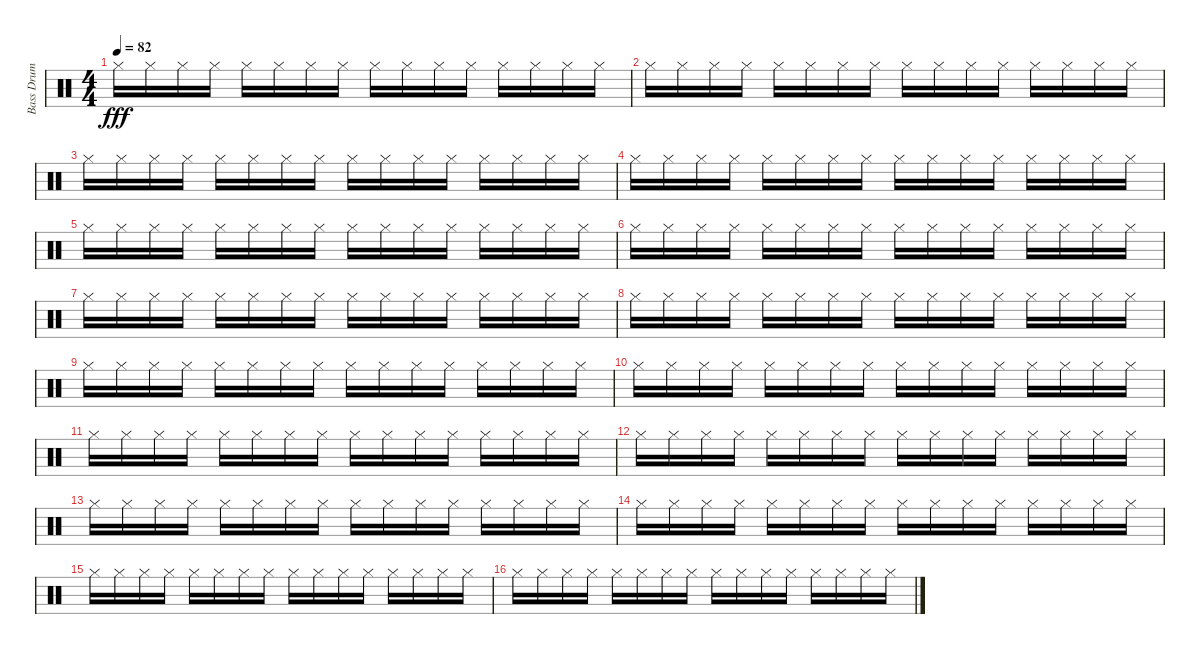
\track ("Bass Drum" "Bass Drum") {instrument percussion}
\staff {score}
\articulation defaults
\ts (4 4)
\tempo 82
\clef neutral
\ks c "Hi-Hat (closed)".16{dy fff} "Hi-Hat (closed)".16 "Hi-Hat (closed)".16 "Hi-Hat (closed)".16 "Hi-Hat (closed)".16 "Hi-Hat (closed)".16 "Hi-Hat (closed)".16 "Hi-Hat (closed)".16 "Hi-Hat (closed)".16 "Hi-Hat (closed)".16 "Hi-Hat (closed)".16 "Hi-Hat (closed)".16 "Hi-Hat (closed)".16 "Hi-Hat (closed)".16 "Hi-Hat (closed)".16 "Hi-Hat (closed)".16
|
"Hi-Hat (closed)".16 "Hi-Hat (closed)".16 "Hi-Hat (closed)".16 "Hi-Hat (closed)".16 "Hi-Hat (closed)".16 "Hi-Hat (closed)".16 "Hi-Hat (closed)".16 "Hi-Hat (closed)".16 "Hi-Hat (closed)".16 "Hi-Hat (closed)".16 "Hi-Hat (closed)".16 "Hi-Hat (closed)".16 "Hi-Hat (closed)".16 "Hi-Hat (closed)".16 "Hi-Hat (closed)".16 "Hi-Hat (closed)".16 |
"Hi-Hat (closed)".16 "Hi-Hat (closed)".16 "Hi-Hat (closed)".16 "Hi-Hat (closed)".16 "Hi-Hat (closed)".16 "Hi-Hat (closed)".16 "Hi-Hat (closed)".16 "Hi-Hat (closed)".16 "Hi-Hat (closed)".16 "Hi-Hat (closed)".16 "Hi-Hat (closed)".16 "Hi-Hat (closed)".16 "Hi-Hat (closed)".16 "Hi-Hat (closed)".16 "Hi-Hat (closed)".16 "Hi-Hat (closed)".16 |
"Hi-Hat (closed)".16 "Hi-Hat (closed)".16 "Hi-Hat (closed)".16 "Hi-Hat (closed)".16 "Hi-Hat (closed)".16 "Hi-Hat (closed)".16 "Hi-Hat (closed)".16 "Hi-Hat (closed)".16 "Hi-Hat (closed)".16 "Hi-Hat (closed)".16 "Hi-Hat (closed)".16 "Hi-Hat (closed)".16 "Hi-Hat (closed)".16 "Hi-Hat (closed)".16 "Hi-Hat (closed)".16 "Hi-Hat (closed)".16 |
"Hi-Hat (closed)".16 "Hi-Hat (closed)".16 "Hi-Hat (closed)".16 "Hi-Hat (closed)".16 "Hi-Hat (closed)".16 "Hi-Hat (closed)".16 "Hi-Hat (closed)".16 "Hi-Hat (closed)".16 "Hi-Hat (closed)".16 "Hi-Hat (closed)".16 "Hi-Hat (closed)".16 "Hi-Hat (closed)".16 "Hi-Hat (closed)".16 "Hi-Hat (closed)".16 "Hi-Hat (closed)".16 "Hi-Hat (closed)".16 |
"Hi-Hat (closed)".16 "Hi-Hat (closed)".16 "Hi-Hat (closed)".16 "Hi-Hat (closed)".16 "Hi-Hat (closed)".16 "Hi-Hat (closed)".16 "Hi-Hat (closed)".16 "Hi-Hat (closed)".16 "Hi-Hat (closed)".16 "Hi-Hat (closed)".16 "Hi-Hat (closed)".16 "Hi-Hat (closed)".16 "Hi-Hat (closed)".16 "Hi-Hat (closed)".16 "Hi-Hat (closed)".16 "Hi-Hat (closed)".16 |
"Hi-Hat (closed)".16 "Hi-Hat (closed)".16 "Hi-Hat (closed)".16 "Hi-Hat (closed)".16 "Hi-Hat (closed)".16 "Hi-Hat (closed)".16 "Hi-Hat (closed)".16 "Hi-Hat (closed)".16 "Hi-Hat (closed)".16 "Hi-Hat (closed)".16 "Hi-Hat (closed)".16 "Hi-Hat (closed)".16 "Hi-Hat (closed)".16 "Hi-Hat (closed)".16 "Hi-Hat (closed)".16 "Hi-Hat (closed)".16 |
"Hi-Hat (closed)".16 "Hi-Hat (closed)".16 "Hi-Hat (closed)".16 "Hi-Hat (closed)".16 "Hi-Hat (closed)".16 "Hi-Hat (closed)".16 "Hi-Hat (closed)".16 "Hi-Hat (closed)".16 "Hi-Hat (closed)".16 "Hi-Hat (closed)".16 "Hi-Hat (closed)".16 "Hi-Hat (closed)".16 "Hi-Hat (closed)".16 "Hi-Hat (closed)".16 "Hi-Hat (closed)".16 "Hi-Hat (closed)".16 |
"Hi-Hat (closed)".16 "Hi-Hat (closed)".16 "Hi-Hat (closed)".16 "Hi-Hat (closed)".16 "Hi-Hat (closed)".16 "Hi-Hat (closed)".16 "Hi-Hat (closed)".16 "Hi-Hat (closed)".16 "Hi-Hat (closed)".16 "Hi-Hat (closed)".16 "Hi-Hat (closed)".16 "Hi-Hat (closed)".16 "Hi-Hat (closed)".16 "Hi-Hat (closed)".16 "Hi-Hat (closed)".16 "Hi-Hat (closed)".16 |
"Hi-Hat (closed)".16 "Hi-Hat (closed)".16 "Hi-Hat (closed)".16 "Hi-Hat (closed)".16 "Hi-Hat (closed)".16 "Hi-Hat (closed)".16 "Hi-Hat (closed)".16 "Hi-Hat (closed)".16 "Hi-Hat (closed)".16 "Hi-Hat (closed)".16 "Hi-Hat (closed)".16 "Hi-Hat (closed)".16 "Hi-Hat (closed)".16 "Hi-Hat (closed)".16 "Hi-Hat (closed)".16 "Hi-Hat (closed)".16 |
"Hi-Hat (closed)".16 "Hi-Hat (closed)".16 "Hi-Hat (closed)".16 "Hi-Hat (closed)".16 "Hi-Hat (closed)".16 "Hi-Hat (closed)".16 "Hi-Hat (closed)".16 "Hi-Hat (closed)".16 "Hi-Hat (closed)".16 "Hi-Hat (closed)".16 "Hi-Hat (closed)".16 "Hi-Hat (closed)".16 "Hi-Hat (closed)".16 "Hi-Hat (closed)".16 "Hi-Hat (closed)".16 "Hi-Hat (closed)".16 |
"Hi-Hat (closed)".16 "Hi-Hat (closed)".16 "Hi-Hat (closed)".16 "Hi-Hat (closed)".16 "Hi-Hat (closed)".16 "Hi-Hat (closed)".16 "Hi-Hat (closed)".16 "Hi-Hat (closed)".16 "Hi-Hat (closed)".16 "Hi-Hat (closed)".16 "Hi-Hat (closed)".16 "Hi-Hat (closed)".16 "Hi-Hat (closed)".16 "Hi-Hat (closed)".16 "Hi-Hat (closed)".16 "Hi-Hat (closed)".16 |
"Hi-Hat (closed)".16 "Hi-Hat (closed)".16 "Hi-Hat (closed)".16 "Hi-Hat (closed)".16 "Hi-Hat (closed)".16 "Hi-Hat (closed)".16 "Hi-Hat (closed)".16 "Hi-Hat (closed)".16 "Hi-Hat (closed)".16 "Hi-Hat (closed)".16 "Hi-Hat (closed)".16 "Hi-Hat (closed)".16 "Hi-Hat (closed)".16 "Hi-Hat (closed)".16 "Hi-Hat (closed)".16 "Hi-Hat (closed)".16 |
"Hi-Hat (closed)".16 "Hi-Hat (closed)".16 "Hi-Hat (closed)".16 "Hi-Hat (closed)".16 "Hi-Hat (closed)".16 "Hi-Hat (closed)".16 "Hi-Hat (closed)".16 "Hi-Hat (closed)".16 "Hi-Hat (closed)".16 "Hi-Hat (closed)".16 "Hi-Hat (closed)".16 "Hi-Hat (closed)".16 "Hi-Hat (closed)".16 "Hi-Hat (closed)".16 "Hi-Hat (closed)".16 "Hi-Hat (closed)".16 |
"Hi-Hat (closed)".16 "Hi-Hat (closed)".16 "Hi-Hat (closed)".16 "Hi-Hat (closed)".16 "Hi-Hat (closed)".16 "Hi-Hat (closed)".16 "Hi-Hat (closed)".16 "Hi-Hat (closed)".16 "Hi-Hat (closed)".16 "Hi-Hat (closed)".16 "Hi-Hat (closed)".16 "Hi-Hat (closed)".16 "Hi-Hat (closed)".16 "Hi-Hat (closed)".16 "Hi-Hat (closed)".16 "Hi-Hat (closed)".16 |
"Hi-Hat (closed)".16 "Hi-Hat (closed)".16 "Hi-Hat (closed)".16 "Hi-Hat (closed)".16 "Hi-Hat (closed)".16 "Hi-Hat (closed)".16 "Hi-Hat (closed)".16 "Hi-Hat (closed)".16 "Hi-Hat (closed)".16 "Hi-Hat (closed)".16 "Hi-Hat (closed)".16 "Hi-Hat (closed)".16 "Hi-Hat (closed)".16 "Hi-Hat (closed)".16 "Hi-Hat (closed)".16 "Hi-Hat (closed)".16
